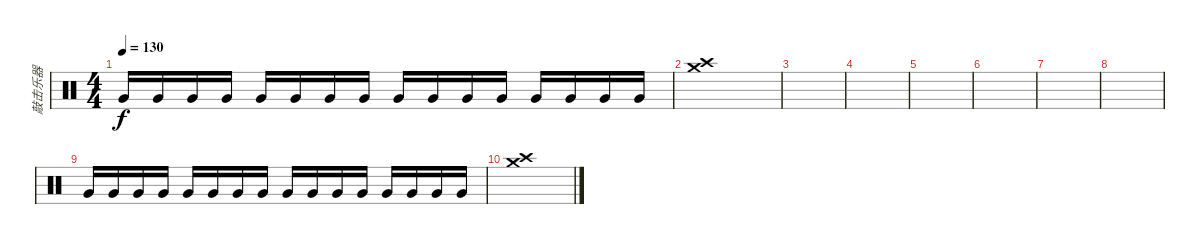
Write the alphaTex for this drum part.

\track ("敲击乐器" "敲击乐器") {instrument percussion}
\staff {score}
\articulation defaults
\ts (4 4)
\tempo 130
\clef neutral
\ks c "Very Low Tom (hit)".16{dy f volume 9} "Very Low Tom (hit)".16 "Very Low Tom (hit)".16 "Very Low Tom (hit)".16 "Very Low Tom (hit)".16{volume 11} "Very Low Tom (hit)".16 "Very Low Tom (hit)".16 "Very Low Tom (hit)".16 "Very Low Tom (hit)".16{volume 13} "Very Low Tom (hit)".16 "Very Low Tom (hit)".16 "Very Low Tom (hit)".16 "Very Low Tom (hit)".16{volume 16} "Very Low Tom (hit)".16 "Very Low Tom (hit)".16 "Very Low Tom (hit)".16
|
("Crash high (hit)" "Crash medium (hit)").1 |
|
|
|
|
|
|
"Very Low Tom (hit)".16{volume 9} "Very Low Tom (hit)".16 "Very Low Tom (hit)".16 "Very Low Tom (hit)".16 "Very Low Tom (hit)".16{volume 11} "Very Low Tom (hit)".16 "Very Low Tom (hit)".16 "Very Low Tom (hit)".16 "Very Low Tom (hit)".16{volume 13} "Very Low Tom (hit)".16 "Very Low Tom (hit)".16 "Very Low Tom (hit)".16 "Very Low Tom (hit)".16{volume 16} "Very Low Tom (hit)".16 "Very Low Tom (hit)".16 "Very Low Tom (hit)".16 |
("Crash high (hit)" "Crash medium (hit)").1
